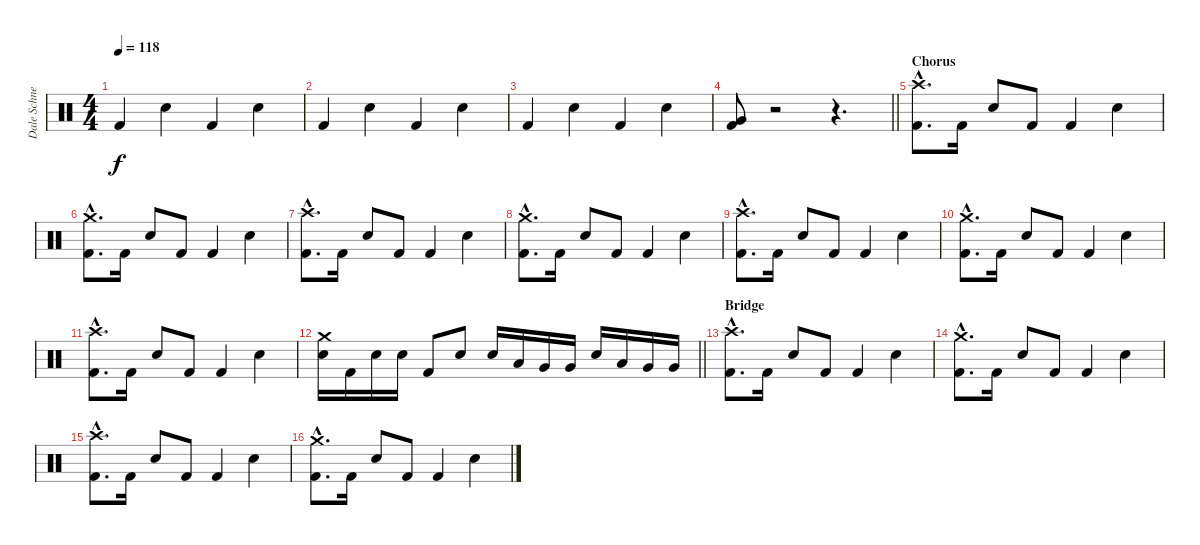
\track ("Dale Schnettler (Drums)" "Dale Schne") {instrument percussion}
\staff {score}
\articulation defaults
\ts (4 4)
\tempo 118
\clef neutral
\ks c "Kick (hit) 2".4{dy f} "Electric Snare (hit)".4 "Kick (hit) 2".4 "Electric Snare (hit)".4
|
"Kick (hit) 2".4 "Electric Snare (hit)".4 "Kick (hit) 2".4 "Electric Snare (hit)".4 |
"Kick (hit) 2".4 "Electric Snare (hit)".4 "Kick (hit) 2".4 "Electric Snare (hit)".4 |
\barLineRight lightlight
("Kick (hit) 2" "Very Low Tom (hit)").8 r.2 r.4{d} |
\section ("" "Chorus")
("Crash high (hit)"{hac} "Kick (hit) 2"{hac}).8{d} "Kick (hit) 2".16 "Electric Snare (hit)".8 "Kick (hit) 2".8 "Kick (hit) 2".4 "Electric Snare (hit)".4 |
("Crash medium (hit)"{hac} "Kick (hit) 2"{hac}).8{d} "Kick (hit) 2".16 "Electric Snare (hit)".8 "Kick (hit) 2".8 "Kick (hit) 2".4 "Electric Snare (hit)".4 |
("Crash high (hit)"{hac} "Kick (hit) 2"{hac}).8{d} "Kick (hit) 2".16 "Electric Snare (hit)".8 "Kick (hit) 2".8 "Kick (hit) 2".4 "Electric Snare (hit)".4 |
("Crash medium (hit)"{hac} "Kick (hit) 2"{hac}).8{d} "Kick (hit) 2".16 "Electric Snare (hit)".8 "Kick (hit) 2".8 "Kick (hit) 2".4 "Electric Snare (hit)".4 |
("Crash high (hit)"{hac} "Kick (hit) 2"{hac}).8{d} "Kick (hit) 2".16 "Electric Snare (hit)".8 "Kick (hit) 2".8 "Kick (hit) 2".4 "Electric Snare (hit)".4 |
("Crash medium (hit)"{hac} "Kick (hit) 2"{hac}).8{d} "Kick (hit) 2".16 "Electric Snare (hit)".8 "Kick (hit) 2".8 "Kick (hit) 2".4 "Electric Snare (hit)".4 |
("Crash high (hit)"{hac} "Kick (hit) 2"{hac}).8{d} "Kick (hit) 2".16 "Electric Snare (hit)".8 "Kick (hit) 2".8 "Kick (hit) 2".4 "Electric Snare (hit)".4 |
\barLineRight lightlight
("Crash medium (hit)" "Electric Snare (hit)").16 "Kick (hit) 2".16 "Electric Snare (hit)".16 "Electric Snare (hit)".16 "Kick (hit) 2".8 "Electric Snare (hit)".8 "Electric Snare (hit)".16 "Low Tom (hit)".16 "Very Low Tom (hit)".16 "Very Low Tom (hit)".16 "Electric Snare (hit)".16 "Low Tom (hit)".16 "Very Low Tom (hit)".16 "Very Low Tom (hit)".16 |
\section ("" "Bridge")
("Crash high (hit)"{hac} "Kick (hit) 2"{hac}).8{d} "Kick (hit) 2".16 "Electric Snare (hit)".8 "Kick (hit) 2".8 "Kick (hit) 2".4 "Electric Snare (hit)".4 |
("Crash medium (hit)"{hac} "Kick (hit) 2"{hac}).8{d} "Kick (hit) 2".16 "Electric Snare (hit)".8 "Kick (hit) 2".8 "Kick (hit) 2".4 "Electric Snare (hit)".4 |
("Crash high (hit)"{hac} "Kick (hit) 2"{hac}).8{d} "Kick (hit) 2".16 "Electric Snare (hit)".8 "Kick (hit) 2".8 "Kick (hit) 2".4 "Electric Snare (hit)".4 |
("Crash medium (hit)"{hac} "Kick (hit) 2"{hac}).8{d} "Kick (hit) 2".16 "Electric Snare (hit)".8 "Kick (hit) 2".8 "Kick (hit) 2".4 "Electric Snare (hit)".4
